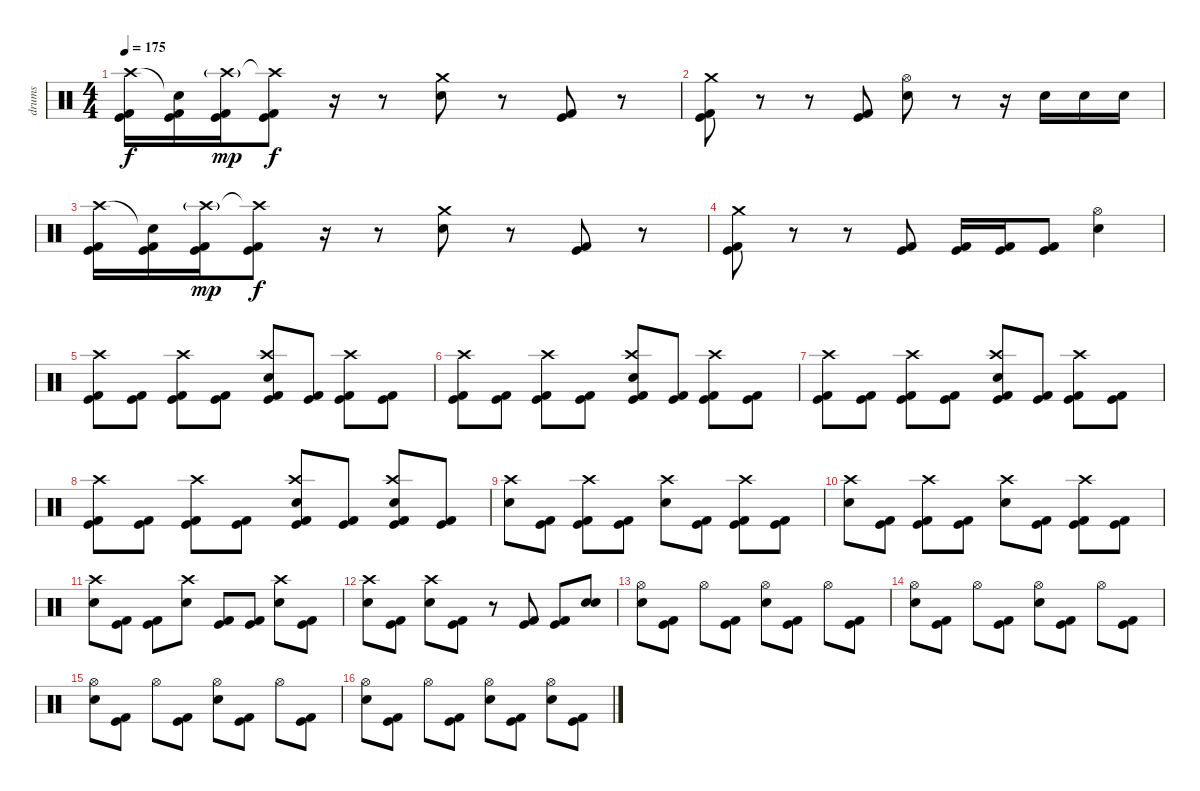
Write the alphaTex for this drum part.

\track ("drums" "drums") {instrument percussion}
\staff {score}
\articulation defaults
\ts (4 4)
\tempo 175
\clef neutral
\ks c
("Kick (hit)" "Kick (hit) 2" "Crash high (hit)").16{dy f} ("Kick (hit)" "Kick (hit) 2" "Snare (hit)"{t}).16 ("Kick (hit)" "Kick (hit) 2" "Crash high (hit)"{g}).16{dy mp} ("Kick (hit)" "Kick (hit) 2" "Crash high (hit)"{t}).8{dy f} r.16 r.8 ("Electric Snare (hit)" "Crash medium (hit)").8 r.8 ("Kick (hit)" "Kick (hit) 2").8 r.8 |
("Kick (hit)" "Kick (hit) 2" "Crash medium (hit)").8 r.8 r.8 ("Kick (hit)" "Kick (hit) 2").8 ("Electric Snare (hit)" "Hi-Hat (open)").8 r.8 r.16 "Electric Snare (hit)".16 "Electric Snare (hit)".16 "Electric Snare (hit)".16 |
("Kick (hit)" "Kick (hit) 2" "Crash high (hit)").16 ("Kick (hit)" "Kick (hit) 2" "Snare (hit)"{t}).16 ("Kick (hit)" "Kick (hit) 2" "Crash high (hit)"{g}).16{dy mp} ("Kick (hit)" "Kick (hit) 2" "Crash high (hit)"{t}).8{dy f} r.16 r.8 ("Electric Snare (hit)" "Crash medium (hit)").8 r.8 ("Kick (hit)" "Kick (hit) 2").8 r.8 |
("Kick (hit)" "Kick (hit) 2" "Crash medium (hit)").8 r.8 r.8 ("Kick (hit)" "Kick (hit) 2").8 ("Kick (hit)" "Kick (hit) 2").16 ("Kick (hit)" "Kick (hit) 2").16 ("Kick (hit)" "Kick (hit) 2").8 ("Electric Snare (hit)" "Hi-Hat (open)").4 |
("Kick (hit)" "Kick (hit) 2" "Crash high (hit)").8 ("Kick (hit)" "Kick (hit) 2").8 ("Kick (hit)" "Kick (hit) 2" "Crash high (hit)").8 ("Kick (hit)" "Kick (hit) 2").8 ("Kick (hit)" "Kick (hit) 2" "Electric Snare (hit)" "Crash high (hit)").8 ("Kick (hit)" "Kick (hit) 2").8 ("Kick (hit)" "Kick (hit) 2" "Crash high (hit)").8 ("Kick (hit)" "Kick (hit) 2").8 |
("Kick (hit)" "Kick (hit) 2" "Crash high (hit)").8 ("Kick (hit)" "Kick (hit) 2").8 ("Kick (hit)" "Kick (hit) 2" "Crash high (hit)").8 ("Kick (hit)" "Kick (hit) 2").8 ("Kick (hit)" "Kick (hit) 2" "Electric Snare (hit)" "Crash high (hit)").8 ("Kick (hit)" "Kick (hit) 2").8 ("Kick (hit)" "Kick (hit) 2" "Crash high (hit)").8 ("Kick (hit)" "Kick (hit) 2").8 |
("Kick (hit)" "Kick (hit) 2" "Crash high (hit)").8 ("Kick (hit)" "Kick (hit) 2").8 ("Kick (hit)" "Kick (hit) 2" "Crash high (hit)").8 ("Kick (hit)" "Kick (hit) 2").8 ("Kick (hit)" "Kick (hit) 2" "Electric Snare (hit)" "Crash high (hit)").8 ("Kick (hit)" "Kick (hit) 2").8 ("Kick (hit)" "Kick (hit) 2" "Crash high (hit)").8 ("Kick (hit)" "Kick (hit) 2").8 |
("Kick (hit)" "Kick (hit) 2" "Crash high (hit)").8 ("Kick (hit)" "Kick (hit) 2").8 ("Kick (hit)" "Kick (hit) 2" "Crash high (hit)").8 ("Kick (hit)" "Kick (hit) 2").8 ("Kick (hit)" "Kick (hit) 2" "Electric Snare (hit)" "Crash high (hit)").8 ("Kick (hit)" "Kick (hit) 2").8 ("Kick (hit)" "Kick (hit) 2" "Electric Snare (hit)" "Crash high (hit)").8 ("Kick (hit)" "Kick (hit) 2").8 |
("Electric Snare (hit)" "Crash high (hit)").8 ("Kick (hit)" "Kick (hit) 2").8 ("Kick (hit)" "Kick (hit) 2" "Crash high (hit)").8 ("Kick (hit)" "Kick (hit) 2").8 ("Electric Snare (hit)" "Crash high (hit)").8 ("Kick (hit)" "Kick (hit) 2").8 ("Kick (hit)" "Kick (hit) 2" "Crash high (hit)").8 ("Kick (hit)" "Kick (hit) 2").8 |
("Electric Snare (hit)" "Crash high (hit)").8 ("Kick (hit)" "Kick (hit) 2").8 ("Kick (hit)" "Kick (hit) 2" "Crash high (hit)").8 ("Kick (hit)" "Kick (hit) 2").8 ("Electric Snare (hit)" "Crash high (hit)").8 ("Kick (hit)" "Kick (hit) 2").8 ("Kick (hit)" "Kick (hit) 2" "Crash high (hit)").8 ("Kick (hit)" "Kick (hit) 2").8 |
("Electric Snare (hit)" "Crash high (hit)").8 ("Kick (hit)" "Kick (hit) 2").8 ("Kick (hit)" "Kick (hit) 2").8 ("Electric Snare (hit)" "Crash high (hit)").8 ("Kick (hit)" "Kick (hit) 2").8 ("Kick (hit)" "Kick (hit) 2").8 ("Electric Snare (hit)" "Crash high (hit)").8 ("Kick (hit)" "Kick (hit) 2").8 |
("Electric Snare (hit)" "Crash high (hit)").8 ("Kick (hit)" "Kick (hit) 2").8 ("Electric Snare (hit)" "Crash high (hit)").8 ("Kick (hit)" "Kick (hit) 2").8 r.8 ("Kick (hit)" "Kick (hit) 2").8 ("Kick (hit)" "Kick (hit) 2").8 ("Electric Snare (hit)" "Electric Snare (hit)").8 |
("Electric Snare (hit)" "Hi-Hat (open)").8 ("Kick (hit)" "Kick (hit) 2").8 "Hi-Hat (open)".8 ("Kick (hit)" "Kick (hit) 2").8 ("Electric Snare (hit)" "Hi-Hat (open)").8 ("Kick (hit)" "Kick (hit) 2").8 "Hi-Hat (open)".8 ("Kick (hit)" "Kick (hit) 2").8 |
("Electric Snare (hit)" "Hi-Hat (open)").8 ("Kick (hit)" "Kick (hit) 2").8 "Hi-Hat (open)".8 ("Kick (hit)" "Kick (hit) 2").8 ("Electric Snare (hit)" "Hi-Hat (open)").8 ("Kick (hit)" "Kick (hit) 2").8 "Hi-Hat (open)".8 ("Kick (hit)" "Kick (hit) 2").8 |
("Electric Snare (hit)" "Hi-Hat (open)").8 ("Kick (hit)" "Kick (hit) 2").8 "Hi-Hat (open)".8 ("Kick (hit)" "Kick (hit) 2").8 ("Electric Snare (hit)" "Hi-Hat (open)").8 ("Kick (hit)" "Kick (hit) 2").8 "Hi-Hat (open)".8 ("Kick (hit)" "Kick (hit) 2").8 |
("Electric Snare (hit)" "Hi-Hat (open)").8 ("Kick (hit)" "Kick (hit) 2").8 "Hi-Hat (open)".8 ("Kick (hit)" "Kick (hit) 2").8 ("Electric Snare (hit)" "Hi-Hat (open)").8 ("Kick (hit)" "Kick (hit) 2").8 ("Electric Snare (hit)" "Hi-Hat (open)").8 ("Kick (hit)" "Kick (hit) 2").8
